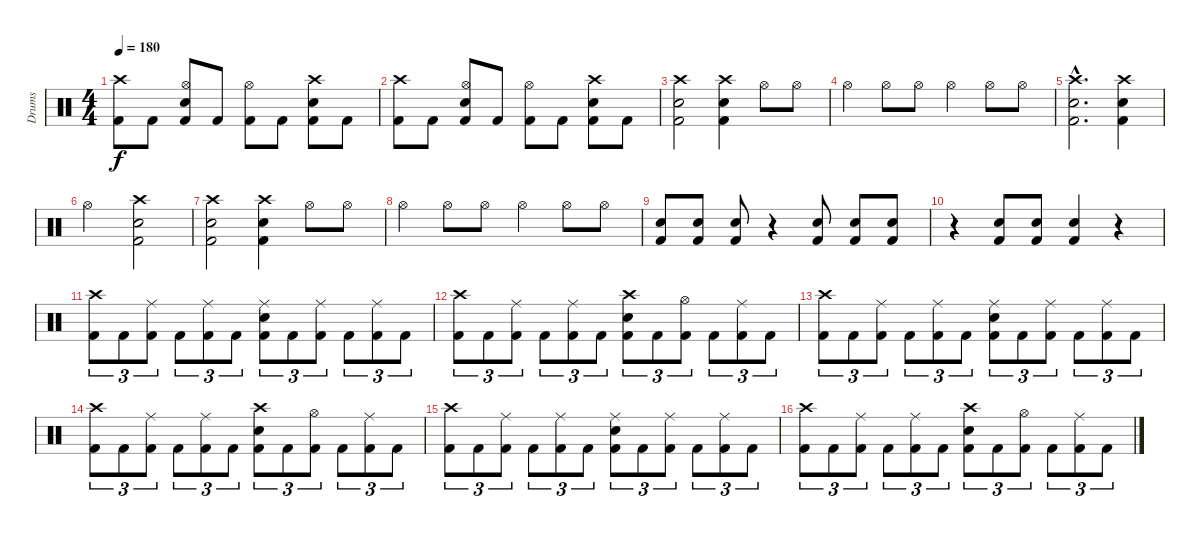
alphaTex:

\track ("Drums" "Drums") {instrument percussion}
\staff {score}
\articulation defaults
\ts (4 4)
\tempo 180
\clef neutral
\ks c
("Crash high (hit)" "Kick (hit) 2").8{dy f} "Kick (hit) 2".8 ("Hi-Hat (open)" "Snare (hit) 2" "Kick (hit) 2").8 "Kick (hit) 2".8 ("Hi-Hat (open)" "Kick (hit) 2").8 "Kick (hit) 2".8 ("Crash high (hit)" "Snare (hit) 2" "Kick (hit) 2").8 "Kick (hit) 2".8 |
("Crash high (hit)" "Kick (hit) 2").8 "Kick (hit) 2".8 ("Hi-Hat (open)" "Snare (hit) 2" "Kick (hit) 2").8 "Kick (hit) 2".8 ("Hi-Hat (open)" "Kick (hit) 2").8 "Kick (hit) 2".8 ("Crash high (hit)" "Snare (hit) 2" "Kick (hit) 2").8 "Kick (hit) 2".8 |
("Crash high (hit)" "Snare (hit) 2" "Kick (hit) 2").2 ("Crash high (hit)" "Snare (hit) 2" "Kick (hit) 2").4 "Hi-Hat (open)".8 "Hi-Hat (open)".8 |
"Hi-Hat (open)".4 "Hi-Hat (open)".8 "Hi-Hat (open)".8 "Hi-Hat (open)".4 "Hi-Hat (open)".8 "Hi-Hat (open)".8 |
("Crash high (hit)"{hac} "Snare (hit) 2"{hac} "Kick (hit) 2"{hac}).2{d} ("Crash high (hit)" "Snare (hit) 2" "Kick (hit) 2").4 |
"Hi-Hat (open)".2 ("Crash high (hit)" "Snare (hit) 2" "Kick (hit) 2").2 |
("Crash high (hit)" "Snare (hit) 2" "Kick (hit) 2").2 ("Crash high (hit)" "Snare (hit) 2" "Kick (hit) 2").4 "Hi-Hat (open)".8 "Hi-Hat (open)".8 |
"Hi-Hat (open)".4 "Hi-Hat (open)".8 "Hi-Hat (open)".8 "Hi-Hat (open)".4 "Hi-Hat (open)".8 "Hi-Hat (open)".8 |
("Snare (hit) 2" "Kick (hit) 2").8 ("Snare (hit) 2" "Kick (hit) 2").8 ("Snare (hit) 2" "Kick (hit) 2").8 r.4 ("Snare (hit) 2" "Kick (hit) 2").8 ("Snare (hit) 2" "Kick (hit) 2").8 ("Snare (hit) 2" "Kick (hit) 2").8 |
r.4 ("Snare (hit) 2" "Kick (hit) 2").8 ("Snare (hit) 2" "Kick (hit) 2").8 ("Snare (hit) 2" "Kick (hit) 2").4 r.4 |
("Crash high (hit)" "Kick (hit) 2").8{tu (3 2)} "Kick (hit) 2".8{tu (3 2)} ("Ride (middle)" "Kick (hit) 2").8{tu (3 2)} "Kick (hit) 2".8{tu (3 2)} ("Ride (middle)" "Kick (hit) 2").8{tu (3 2)} "Kick (hit) 2".8{tu (3 2)} ("Ride (middle)" "Snare (hit) 2" "Kick (hit) 2").8{tu (3 2)} "Kick (hit) 2".8{tu (3 2)} ("Ride (middle)" "Kick (hit) 2").8{tu (3 2)} "Kick (hit) 2".8{tu (3 2)} ("Ride (middle)" "Kick (hit) 2").8{tu (3 2)} "Kick (hit) 2".8{tu (3 2)} |
("Crash high (hit)" "Kick (hit) 2").8{tu (3 2)} "Kick (hit) 2".8{tu (3 2)} ("Ride (middle)" "Kick (hit) 2").8{tu (3 2)} "Kick (hit) 2".8{tu (3 2)} ("Ride (middle)" "Kick (hit) 2").8{tu (3 2)} "Kick (hit) 2".8{tu (3 2)} ("Crash high (hit)" "Snare (hit) 2" "Kick (hit) 2").8{tu (3 2)} "Kick (hit) 2".8{tu (3 2)} ("Hi-Hat (open)" "Kick (hit) 2").8{tu (3 2)} "Kick (hit) 2".8{tu (3 2)} ("Ride (middle)" "Kick (hit) 2").8{tu (3 2)} "Kick (hit) 2".8{tu (3 2)} |
("Crash high (hit)" "Kick (hit) 2").8{tu (3 2)} "Kick (hit) 2".8{tu (3 2)} ("Ride (middle)" "Kick (hit) 2").8{tu (3 2)} "Kick (hit) 2".8{tu (3 2)} ("Ride (middle)" "Kick (hit) 2").8{tu (3 2)} "Kick (hit) 2".8{tu (3 2)} ("Ride (middle)" "Snare (hit) 2" "Kick (hit) 2").8{tu (3 2)} "Kick (hit) 2".8{tu (3 2)} ("Ride (middle)" "Kick (hit) 2").8{tu (3 2)} "Kick (hit) 2".8{tu (3 2)} ("Ride (middle)" "Kick (hit) 2").8{tu (3 2)} "Kick (hit) 2".8{tu (3 2)} |
("Crash high (hit)" "Kick (hit) 2").8{tu (3 2)} "Kick (hit) 2".8{tu (3 2)} ("Ride (middle)" "Kick (hit) 2").8{tu (3 2)} "Kick (hit) 2".8{tu (3 2)} ("Ride (middle)" "Kick (hit) 2").8{tu (3 2)} "Kick (hit) 2".8{tu (3 2)} ("Crash high (hit)" "Snare (hit) 2" "Kick (hit) 2").8{tu (3 2)} "Kick (hit) 2".8{tu (3 2)} ("Hi-Hat (open)" "Kick (hit) 2").8{tu (3 2)} "Kick (hit) 2".8{tu (3 2)} ("Ride (middle)" "Kick (hit) 2").8{tu (3 2)} "Kick (hit) 2".8{tu (3 2)} |
("Crash high (hit)" "Kick (hit) 2").8{tu (3 2)} "Kick (hit) 2".8{tu (3 2)} ("Ride (middle)" "Kick (hit) 2").8{tu (3 2)} "Kick (hit) 2".8{tu (3 2)} ("Ride (middle)" "Kick (hit) 2").8{tu (3 2)} "Kick (hit) 2".8{tu (3 2)} ("Ride (middle)" "Snare (hit) 2" "Kick (hit) 2").8{tu (3 2)} "Kick (hit) 2".8{tu (3 2)} ("Ride (middle)" "Kick (hit) 2").8{tu (3 2)} "Kick (hit) 2".8{tu (3 2)} ("Ride (middle)" "Kick (hit) 2").8{tu (3 2)} "Kick (hit) 2".8{tu (3 2)} |
("Crash high (hit)" "Kick (hit) 2").8{tu (3 2)} "Kick (hit) 2".8{tu (3 2)} ("Ride (middle)" "Kick (hit) 2").8{tu (3 2)} "Kick (hit) 2".8{tu (3 2)} ("Ride (middle)" "Kick (hit) 2").8{tu (3 2)} "Kick (hit) 2".8{tu (3 2)} ("Crash high (hit)" "Snare (hit) 2" "Kick (hit) 2").8{tu (3 2)} "Kick (hit) 2".8{tu (3 2)} ("Hi-Hat (open)" "Kick (hit) 2").8{tu (3 2)} "Kick (hit) 2".8{tu (3 2)} ("Ride (middle)" "Kick (hit) 2").8{tu (3 2)} "Kick (hit) 2".8{tu (3 2)}
